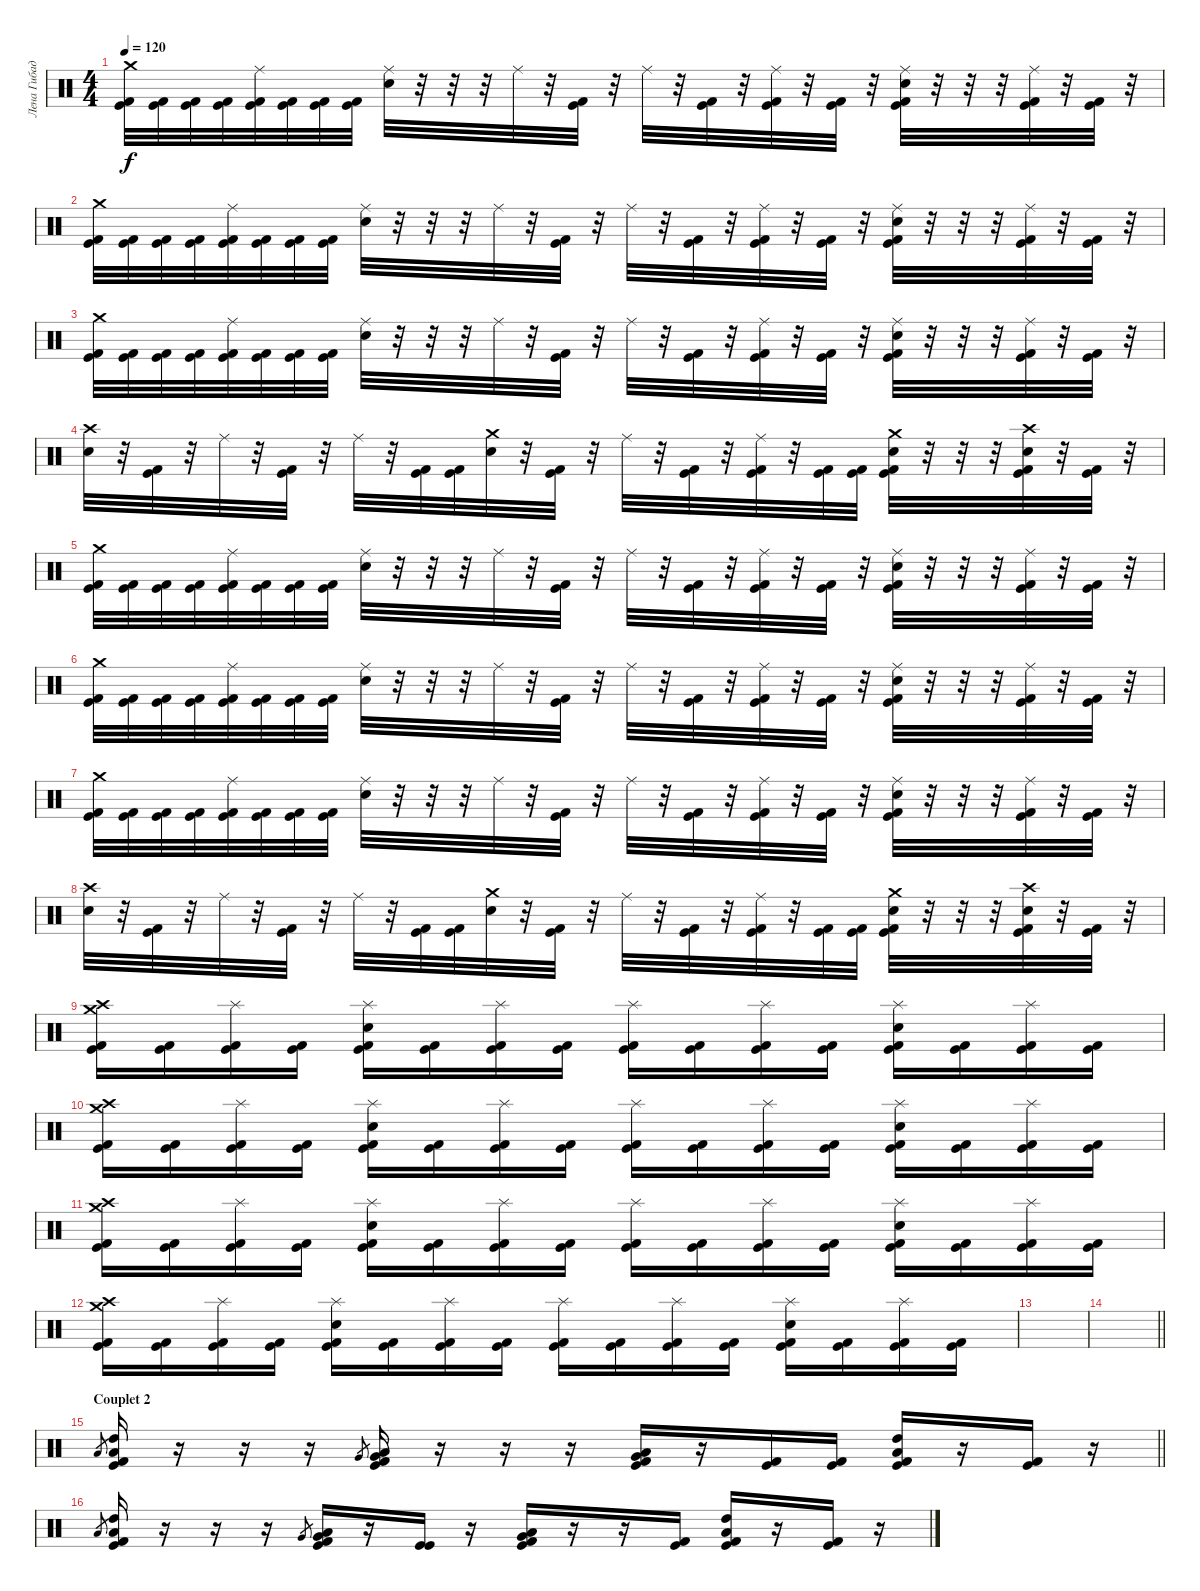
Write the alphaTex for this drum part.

\track ("Лена Гибадулина" "Лена Гибад") {instrument percussion}
\staff {score}
\articulation defaults
\ts (4 4)
\tempo 120
\clef neutral
\ks c
("Crash medium (hit)" "Kick (hit)" "Kick (hit) 2").32{dy f} ("Kick (hit)" "Kick (hit) 2").32 ("Kick (hit)" "Kick (hit) 2").32 ("Kick (hit)" "Kick (hit) 2").32 ("Ride (middle)" "Kick (hit)" "Kick (hit) 2").32 ("Kick (hit)" "Kick (hit) 2").32 ("Kick (hit)" "Kick (hit) 2").32 ("Kick (hit)" "Kick (hit) 2").32 ("Ride (middle)" "Electric Snare (hit)").32 r.32 r.32 r.32 "Ride (middle)".32 r.32 ("Kick (hit)" "Kick (hit) 2").32 r.32 "Ride (middle)".32 r.32 ("Kick (hit)" "Kick (hit) 2").32 r.32 ("Ride (middle)" "Kick (hit)" "Kick (hit) 2").32 r.32 ("Kick (hit)" "Kick (hit) 2").32 r.32 ("Ride (middle)" "Electric Snare (hit)" "Kick (hit)" "Kick (hit) 2").32 r.32 r.32 r.32 ("Ride (middle)" "Kick (hit)" "Kick (hit) 2").32 r.32 ("Kick (hit) 2" "Kick (hit)").32 r.32 |
("Crash medium (hit)" "Kick (hit)" "Kick (hit) 2").32 ("Kick (hit)" "Kick (hit) 2").32 ("Kick (hit)" "Kick (hit) 2").32 ("Kick (hit)" "Kick (hit) 2").32 ("Ride (middle)" "Kick (hit)" "Kick (hit) 2").32 ("Kick (hit)" "Kick (hit) 2").32 ("Kick (hit)" "Kick (hit) 2").32 ("Kick (hit)" "Kick (hit) 2").32 ("Ride (middle)" "Electric Snare (hit)").32 r.32 r.32 r.32 "Ride (middle)".32 r.32 ("Kick (hit)" "Kick (hit) 2").32 r.32 "Ride (middle)".32 r.32 ("Kick (hit)" "Kick (hit) 2").32 r.32 ("Ride (middle)" "Kick (hit)" "Kick (hit) 2").32 r.32 ("Kick (hit)" "Kick (hit) 2").32 r.32 ("Ride (middle)" "Electric Snare (hit)" "Kick (hit)" "Kick (hit) 2").32 r.32 r.32 r.32 ("Ride (middle)" "Kick (hit)" "Kick (hit) 2").32 r.32 ("Kick (hit) 2" "Kick (hit)").32 r.32 |
("Crash medium (hit)" "Kick (hit)" "Kick (hit) 2").32 ("Kick (hit)" "Kick (hit) 2").32 ("Kick (hit)" "Kick (hit) 2").32 ("Kick (hit)" "Kick (hit) 2").32 ("Ride (middle)" "Kick (hit)" "Kick (hit) 2").32 ("Kick (hit)" "Kick (hit) 2").32 ("Kick (hit)" "Kick (hit) 2").32 ("Kick (hit)" "Kick (hit) 2").32 ("Ride (middle)" "Electric Snare (hit)").32 r.32 r.32 r.32 "Ride (middle)".32 r.32 ("Kick (hit)" "Kick (hit) 2").32 r.32 "Ride (middle)".32 r.32 ("Kick (hit)" "Kick (hit) 2").32 r.32 ("Ride (middle)" "Kick (hit)" "Kick (hit) 2").32 r.32 ("Kick (hit)" "Kick (hit) 2").32 r.32 ("Ride (middle)" "Electric Snare (hit)" "Kick (hit)" "Kick (hit) 2").32 r.32 r.32 r.32 ("Ride (middle)" "Kick (hit)" "Kick (hit) 2").32 r.32 ("Kick (hit) 2" "Kick (hit)").32 r.32 |
("Crash high (hit)" "Electric Snare (hit)").32 r.32 ("Kick (hit)" "Kick (hit) 2").32 r.32 "Ride (middle)".32 r.32 ("Kick (hit)" "Kick (hit) 2").32 r.32 "Ride (middle)".32 r.32 ("Kick (hit)" "Kick (hit) 2").32 ("Kick (hit)" "Kick (hit) 2").32 ("Crash medium (hit)" "Electric Snare (hit)").32 r.32 ("Kick (hit)" "Kick (hit) 2").32 r.32 "Ride (middle)".32 r.32 ("Kick (hit)" "Kick (hit) 2").32 r.32 ("Ride (middle)" "Kick (hit)" "Kick (hit) 2").32 r.32 ("Kick (hit)" "Kick (hit) 2").32 ("Kick (hit)" "Kick (hit) 2").32 ("Crash medium (hit)" "Electric Snare (hit)" "Kick (hit)" "Kick (hit) 2").32 r.32 r.32 r.32 ("Crash high (hit)" "Electric Snare (hit)" "Kick (hit)" "Kick (hit) 2").32 r.32 ("Kick (hit) 2" "Kick (hit)").32 r.32 |
("Crash medium (hit)" "Kick (hit)" "Kick (hit) 2").32 ("Kick (hit)" "Kick (hit) 2").32 ("Kick (hit)" "Kick (hit) 2").32 ("Kick (hit)" "Kick (hit) 2").32 ("Ride (middle)" "Kick (hit)" "Kick (hit) 2").32 ("Kick (hit)" "Kick (hit) 2").32 ("Kick (hit)" "Kick (hit) 2").32 ("Kick (hit)" "Kick (hit) 2").32 ("Ride (middle)" "Electric Snare (hit)").32 r.32 r.32 r.32 "Ride (middle)".32 r.32 ("Kick (hit)" "Kick (hit) 2").32 r.32 "Ride (middle)".32 r.32 ("Kick (hit)" "Kick (hit) 2").32 r.32 ("Ride (middle)" "Kick (hit)" "Kick (hit) 2").32 r.32 ("Kick (hit)" "Kick (hit) 2").32 r.32 ("Ride (middle)" "Electric Snare (hit)" "Kick (hit)" "Kick (hit) 2").32 r.32 r.32 r.32 ("Ride (middle)" "Kick (hit)" "Kick (hit) 2").32 r.32 ("Kick (hit) 2" "Kick (hit)").32 r.32 |
("Crash medium (hit)" "Kick (hit)" "Kick (hit) 2").32 ("Kick (hit)" "Kick (hit) 2").32 ("Kick (hit)" "Kick (hit) 2").32 ("Kick (hit)" "Kick (hit) 2").32 ("Ride (middle)" "Kick (hit)" "Kick (hit) 2").32 ("Kick (hit)" "Kick (hit) 2").32 ("Kick (hit)" "Kick (hit) 2").32 ("Kick (hit)" "Kick (hit) 2").32 ("Ride (middle)" "Electric Snare (hit)").32 r.32 r.32 r.32 "Ride (middle)".32 r.32 ("Kick (hit)" "Kick (hit) 2").32 r.32 "Ride (middle)".32 r.32 ("Kick (hit)" "Kick (hit) 2").32 r.32 ("Ride (middle)" "Kick (hit)" "Kick (hit) 2").32 r.32 ("Kick (hit)" "Kick (hit) 2").32 r.32 ("Ride (middle)" "Electric Snare (hit)" "Kick (hit)" "Kick (hit) 2").32 r.32 r.32 r.32 ("Ride (middle)" "Kick (hit)" "Kick (hit) 2").32 r.32 ("Kick (hit) 2" "Kick (hit)").32 r.32 |
("Crash medium (hit)" "Kick (hit)" "Kick (hit) 2").32 ("Kick (hit)" "Kick (hit) 2").32 ("Kick (hit)" "Kick (hit) 2").32 ("Kick (hit)" "Kick (hit) 2").32 ("Ride (middle)" "Kick (hit)" "Kick (hit) 2").32 ("Kick (hit)" "Kick (hit) 2").32 ("Kick (hit)" "Kick (hit) 2").32 ("Kick (hit)" "Kick (hit) 2").32 ("Ride (middle)" "Electric Snare (hit)").32 r.32 r.32 r.32 "Ride (middle)".32 r.32 ("Kick (hit)" "Kick (hit) 2").32 r.32 "Ride (middle)".32 r.32 ("Kick (hit)" "Kick (hit) 2").32 r.32 ("Ride (middle)" "Kick (hit)" "Kick (hit) 2").32 r.32 ("Kick (hit)" "Kick (hit) 2").32 r.32 ("Ride (middle)" "Electric Snare (hit)" "Kick (hit)" "Kick (hit) 2").32 r.32 r.32 r.32 ("Ride (middle)" "Kick (hit)" "Kick (hit) 2").32 r.32 ("Kick (hit) 2" "Kick (hit)").32 r.32 |
("Crash high (hit)" "Electric Snare (hit)").32 r.32 ("Kick (hit)" "Kick (hit) 2").32 r.32 "Ride (middle)".32 r.32 ("Kick (hit)" "Kick (hit) 2").32 r.32 "Ride (middle)".32 r.32 ("Kick (hit)" "Kick (hit) 2").32 ("Kick (hit)" "Kick (hit) 2").32 ("Crash medium (hit)" "Electric Snare (hit)").32 r.32 ("Kick (hit)" "Kick (hit) 2").32 r.32 "Ride (middle)".32 r.32 ("Kick (hit)" "Kick (hit) 2").32 r.32 ("Ride (middle)" "Kick (hit)" "Kick (hit) 2").32 r.32 ("Kick (hit)" "Kick (hit) 2").32 ("Kick (hit)" "Kick (hit) 2").32 ("Crash medium (hit)" "Electric Snare (hit)" "Kick (hit)" "Kick (hit) 2").32 r.32 r.32 r.32 ("Crash high (hit)" "Electric Snare (hit)" "Kick (hit)" "Kick (hit) 2").32 r.32 ("Kick (hit) 2" "Kick (hit)").32 r.32 |
("Crash high (hit)" "Crash medium (hit)" "Kick (hit)" "Kick (hit) 2").16 ("Kick (hit)" "Kick (hit) 2").16 ("Splash (hit)" "Kick (hit)" "Kick (hit) 2").16 ("Kick (hit)" "Kick (hit) 2").16 ("Electric Snare (hit)" "Splash (hit)" "Kick (hit)" "Kick (hit) 2").16 ("Kick (hit)" "Kick (hit) 2").16 ("Splash (hit)" "Kick (hit)" "Kick (hit) 2").16 ("Kick (hit)" "Kick (hit) 2").16 ("Splash (hit)" "Kick (hit)" "Kick (hit) 2").16 ("Kick (hit)" "Kick (hit) 2").16 ("Splash (hit)" "Kick (hit)" "Kick (hit) 2").16 ("Kick (hit)" "Kick (hit) 2").16 ("Electric Snare (hit)" "Splash (hit)" "Kick (hit)" "Kick (hit) 2").16 ("Kick (hit)" "Kick (hit) 2").16 ("Splash (hit)" "Kick (hit)" "Kick (hit) 2").16 ("Kick (hit)" "Kick (hit) 2").16 |
("Crash high (hit)" "Crash medium (hit)" "Kick (hit)" "Kick (hit) 2").16 ("Kick (hit)" "Kick (hit) 2").16 ("Splash (hit)" "Kick (hit)" "Kick (hit) 2").16 ("Kick (hit)" "Kick (hit) 2").16 ("Electric Snare (hit)" "Splash (hit)" "Kick (hit)" "Kick (hit) 2").16 ("Kick (hit)" "Kick (hit) 2").16 ("Splash (hit)" "Kick (hit)" "Kick (hit) 2").16 ("Kick (hit)" "Kick (hit) 2").16 ("Splash (hit)" "Kick (hit)" "Kick (hit) 2").16 ("Kick (hit)" "Kick (hit) 2").16 ("Splash (hit)" "Kick (hit)" "Kick (hit) 2").16 ("Kick (hit)" "Kick (hit) 2").16 ("Electric Snare (hit)" "Splash (hit)" "Kick (hit)" "Kick (hit) 2").16 ("Kick (hit)" "Kick (hit) 2").16 ("Splash (hit)" "Kick (hit)" "Kick (hit) 2").16 ("Kick (hit)" "Kick (hit) 2").16 |
("Crash high (hit)" "Crash medium (hit)" "Kick (hit)" "Kick (hit) 2").16 ("Kick (hit)" "Kick (hit) 2").16 ("Splash (hit)" "Kick (hit)" "Kick (hit) 2").16 ("Kick (hit)" "Kick (hit) 2").16 ("Electric Snare (hit)" "Splash (hit)" "Kick (hit)" "Kick (hit) 2").16 ("Kick (hit)" "Kick (hit) 2").16 ("Splash (hit)" "Kick (hit)" "Kick (hit) 2").16 ("Kick (hit)" "Kick (hit) 2").16 ("Splash (hit)" "Kick (hit)" "Kick (hit) 2").16 ("Kick (hit)" "Kick (hit) 2").16 ("Splash (hit)" "Kick (hit)" "Kick (hit) 2").16 ("Kick (hit)" "Kick (hit) 2").16 ("Electric Snare (hit)" "Splash (hit)" "Kick (hit)" "Kick (hit) 2").16 ("Kick (hit)" "Kick (hit) 2").16 ("Splash (hit)" "Kick (hit)" "Kick (hit) 2").16 ("Kick (hit)" "Kick (hit) 2").16 |
("Crash high (hit)" "Crash medium (hit)" "Kick (hit)" "Kick (hit) 2").16 ("Kick (hit)" "Kick (hit) 2").16 ("Splash (hit)" "Kick (hit)" "Kick (hit) 2").16 ("Kick (hit)" "Kick (hit) 2").16 ("Electric Snare (hit)" "Splash (hit)" "Kick (hit)" "Kick (hit) 2").16 ("Kick (hit)" "Kick (hit) 2").16 ("Splash (hit)" "Kick (hit)" "Kick (hit) 2").16 ("Kick (hit)" "Kick (hit) 2").16 ("Splash (hit)" "Kick (hit)" "Kick (hit) 2").16 ("Kick (hit)" "Kick (hit) 2").16 ("Splash (hit)" "Kick (hit)" "Kick (hit) 2").16 ("Kick (hit)" "Kick (hit) 2").16 ("Electric Snare (hit)" "Splash (hit)" "Kick (hit)" "Kick (hit) 2").16 ("Kick (hit)" "Kick (hit) 2").16 ("Splash (hit)" "Kick (hit)" "Kick (hit) 2").16 ("Kick (hit)" "Kick (hit) 2").16 |
|
\barLineRight lightlight
|
\section ("" "Couplet 2")
\barLineRight lightlight "Low Tom (hit)".8{gr}
("Kick (hit)" "Kick (hit) 2" "High Tom (hit)" "Low Tom (hit)").16 r.16 r.16 r.16 "Very Low Tom (hit)".8{gr} ("Kick (hit)" "Kick (hit) 2" "Very Low Tom (hit)" "Low Tom (hit)").16 r.16 r.16 r.16 ("Kick (hit)" "Kick (hit) 2" "Low Floor Tom (hit)" "Very Low Tom (hit)").16 r.16 ("Kick (hit)" "Kick (hit) 2").16 ("Kick (hit)" "Kick (hit) 2").16 ("Kick (hit)" "Kick (hit) 2" "Low Tom (hit)" "High Tom (hit)").16 r.16 ("Kick (hit)" "Kick (hit) 2").16 r.16 |
"Low Tom (hit)".8{gr} ("Kick (hit)" "Kick (hit) 2" "High Tom (hit)" "Low Tom (hit)").16 r.16 r.16 r.16 "Very Low Tom (hit)".8{gr} ("Kick (hit)" "Kick (hit) 2" "Very Low Tom (hit)" "Low Tom (hit)").16 r.16 ("Kick (hit)" "Kick (hit)").16 r.16 ("Kick (hit)" "Kick (hit) 2" "Low Floor Tom (hit)" "Very Low Tom (hit)").16 r.16 r.16 ("Kick (hit) 2" "Kick (hit)").16 ("Kick (hit)" "Kick (hit) 2" "Low Tom (hit)" "High Tom (hit)").16 r.16 ("Kick (hit)" "Kick (hit) 2").16 r.16
